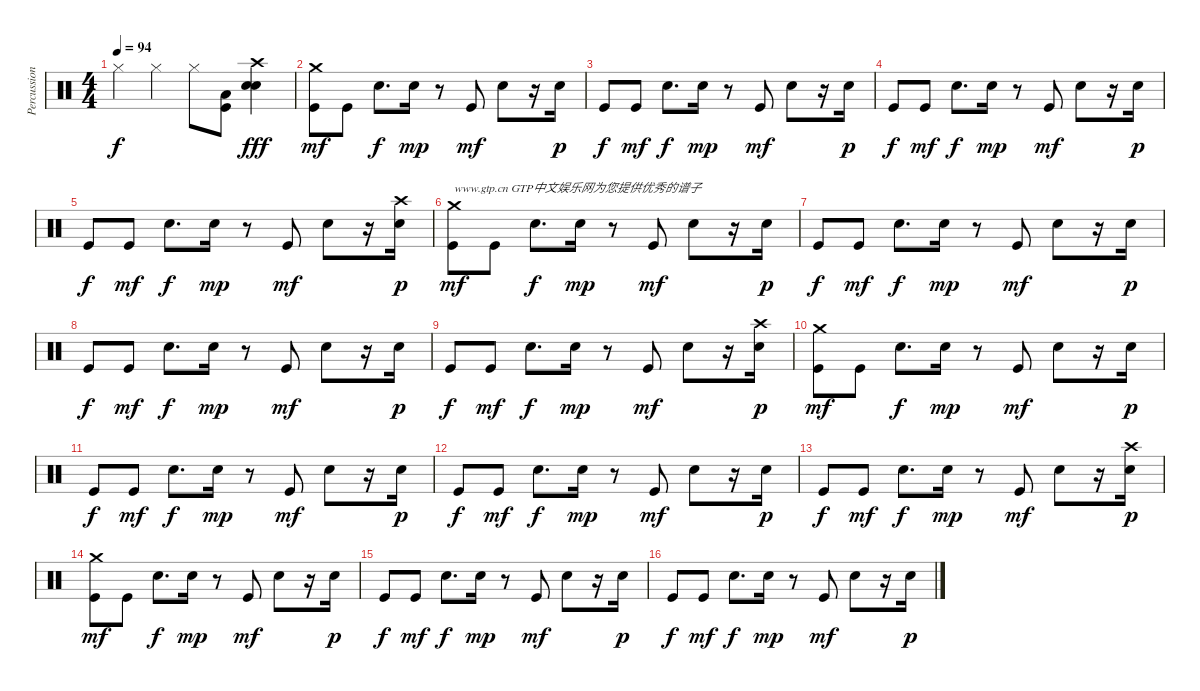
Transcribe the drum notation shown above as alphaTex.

\track ("Percussions" "Percussion") {instrument percussion}
\staff {score}
\articulation defaults
\ts (4 4)
\tempo 94
\clef neutral
\ks c "Hi-Hat (closed)".4{dy f} "Hi-Hat (closed)".4 "Hi-Hat (closed)".8
("Low Floor Tom (hit)" "Kick (hit)").8 ("Crash high (hit)" "Electric Snare (hit)" "Snare (hit) 2").4{dy fff} |
("Crash medium (hit)" "Kick (hit)").8{dy mf} "Kick (hit)".8 "Snare (hit) 2".8{d dy f} "Snare (hit) 2".16{dy mp} r.8 "Kick (hit)".8{dy mf} "Snare (hit) 2".8 r.16 "Snare (hit) 2".16{dy p} |
"Kick (hit)".8{dy f} "Kick (hit)".8{dy mf} "Snare (hit) 2".8{d dy f} "Snare (hit) 2".16{dy mp} r.8 "Kick (hit)".8{dy mf} "Snare (hit) 2".8 r.16 "Snare (hit) 2".16{dy p} |
"Kick (hit)".8{dy f} "Kick (hit)".8{dy mf} "Snare (hit) 2".8{d dy f} "Snare (hit) 2".16{dy mp} r.8 "Kick (hit)".8{dy mf} "Snare (hit) 2".8 r.16 "Snare (hit) 2".16{dy p} |
"Kick (hit)".8{dy f} "Kick (hit)".8{dy mf} "Snare (hit) 2".8{d dy f} "Snare (hit) 2".16{dy mp} r.8 "Kick (hit)".8{dy mf} "Snare (hit) 2".8 r.16 ("Crash high (hit)" "Snare (hit) 2").16{dy p} |
("Crash medium (hit)" "Kick (hit)").8{txt "www.gtp.cn GTP中文娱乐网为您提供优秀的谱子" dy mf} "Kick (hit)".8 "Snare (hit) 2".8{d dy f} "Snare (hit) 2".16{dy mp} r.8 "Kick (hit)".8{dy mf} "Snare (hit) 2".8 r.16 "Snare (hit) 2".16{dy p} |
"Kick (hit)".8{dy f} "Kick (hit)".8{dy mf} "Snare (hit) 2".8{d dy f} "Snare (hit) 2".16{dy mp} r.8 "Kick (hit)".8{dy mf} "Snare (hit) 2".8 r.16 "Snare (hit) 2".16{dy p} |
"Kick (hit)".8{dy f} "Kick (hit)".8{dy mf} "Snare (hit) 2".8{d dy f} "Snare (hit) 2".16{dy mp} r.8 "Kick (hit)".8{dy mf} "Snare (hit) 2".8 r.16 "Snare (hit) 2".16{dy p} |
"Kick (hit)".8{dy f} "Kick (hit)".8{dy mf} "Snare (hit) 2".8{d dy f} "Snare (hit) 2".16{dy mp} r.8 "Kick (hit)".8{dy mf} "Snare (hit) 2".8 r.16 ("Crash high (hit)" "Snare (hit) 2").16{dy p} |
("Crash medium (hit)" "Kick (hit)").8{dy mf} "Kick (hit)".8 "Snare (hit) 2".8{d dy f} "Snare (hit) 2".16{dy mp} r.8 "Kick (hit)".8{dy mf} "Snare (hit) 2".8 r.16 "Snare (hit) 2".16{dy p} |
"Kick (hit)".8{dy f} "Kick (hit)".8{dy mf} "Snare (hit) 2".8{d dy f} "Snare (hit) 2".16{dy mp} r.8 "Kick (hit)".8{dy mf} "Snare (hit) 2".8 r.16 "Snare (hit) 2".16{dy p} |
"Kick (hit)".8{dy f} "Kick (hit)".8{dy mf} "Snare (hit) 2".8{d dy f} "Snare (hit) 2".16{dy mp} r.8 "Kick (hit)".8{dy mf} "Snare (hit) 2".8 r.16 "Snare (hit) 2".16{dy p} |
"Kick (hit)".8{dy f} "Kick (hit)".8{dy mf} "Snare (hit) 2".8{d dy f} "Snare (hit) 2".16{dy mp} r.8 "Kick (hit)".8{dy mf} "Snare (hit) 2".8 r.16 ("Crash high (hit)" "Snare (hit) 2").16{dy p} |
("Crash medium (hit)" "Kick (hit)").8{dy mf} "Kick (hit)".8 "Snare (hit) 2".8{d dy f} "Snare (hit) 2".16{dy mp} r.8 "Kick (hit)".8{dy mf} "Snare (hit) 2".8 r.16 "Snare (hit) 2".16{dy p} |
"Kick (hit)".8{dy f} "Kick (hit)".8{dy mf} "Snare (hit) 2".8{d dy f} "Snare (hit) 2".16{dy mp} r.8 "Kick (hit)".8{dy mf} "Snare (hit) 2".8 r.16 "Snare (hit) 2".16{dy p} |
"Kick (hit)".8{dy f} "Kick (hit)".8{dy mf} "Snare (hit) 2".8{d dy f} "Snare (hit) 2".16{dy mp} r.8 "Kick (hit)".8{dy mf} "Snare (hit) 2".8 r.16 "Snare (hit) 2".16{dy p}
